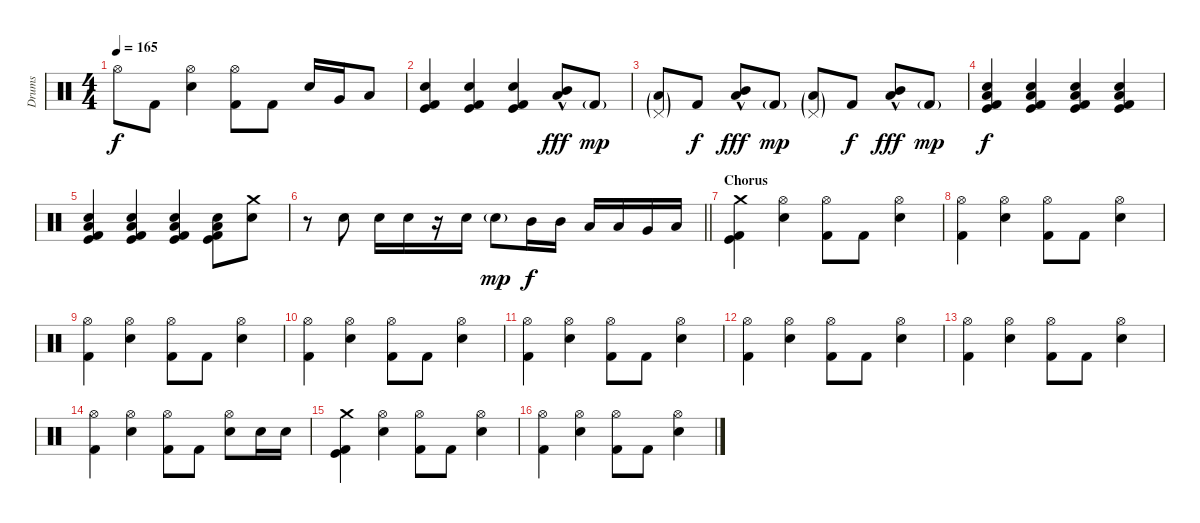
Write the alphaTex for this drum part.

\track ("Drums" "Drums") {instrument percussion}
\staff {score}
\articulation defaults
\ts (4 4)
\tempo 165
\clef neutral
\ks c "Hi-Hat (open)".8{dy f} "Kick (hit) 2".8
("Hi-Hat (open)" "Electric Snare (hit)").4 ("Hi-Hat (open)" "Kick (hit) 2").8 "Kick (hit) 2".8 "Electric Snare (hit)".16 "Very Low Tom (hit)".16 "Low Floor Tom (hit)".8 |
("Kick (hit) 2" "Kick (hit)" "Electric Snare (hit)").4 ("Kick (hit) 2" "Kick (hit)" "Electric Snare (hit)").4 ("Kick (hit) 2" "Kick (hit)" "Electric Snare (hit)").4 ("Mid Tom (hit)"{hac} "Low Floor Tom (hit)").8{dy fff} "Kick (hit) 2"{g}.8{dy mp} |
("Low Floor Tom (hit)"{g} "Pedal Hi-Hat (hit)"{g}).8 "Kick (hit) 2".8{dy f} ("Mid Tom (hit)"{hac} "Low Floor Tom (hit)").8{dy fff} "Kick (hit) 2"{g}.8{dy mp} ("Low Floor Tom (hit)"{g} "Pedal Hi-Hat (hit)"{g}).8 "Kick (hit) 2".8{dy f} ("Mid Tom (hit)"{hac} "Low Floor Tom (hit)").8{dy fff} "Kick (hit) 2"{g}.8{dy mp} |
("Electric Snare (hit)" "Kick (hit) 2" "Kick (hit)" "Low Floor Tom (hit)").4{dy f} ("Electric Snare (hit)" "Kick (hit) 2" "Kick (hit)" "Low Floor Tom (hit)").4 ("Electric Snare (hit)" "Kick (hit) 2" "Kick (hit)" "Low Floor Tom (hit)").4 ("Electric Snare (hit)" "Kick (hit) 2" "Kick (hit)" "Low Floor Tom (hit)").4 |
("Electric Snare (hit)" "Kick (hit) 2" "Kick (hit)" "Low Floor Tom (hit)").4 ("Electric Snare (hit)" "Kick (hit) 2" "Kick (hit)" "Low Floor Tom (hit)").4 ("Electric Snare (hit)" "Kick (hit) 2" "Kick (hit)" "Low Floor Tom (hit)").4 ("Electric Snare (hit)" "Kick (hit) 2" "Kick (hit)" "Low Floor Tom (hit)").8 ("Crash medium (hit)" "Electric Snare (hit)").8 |
\barLineRight lightlight
r.8 "Electric Snare (hit)".8 "Electric Snare (hit)".16 "Electric Snare (hit)".16 r.16 "Electric Snare (hit)".16 "Electric Snare (hit)"{g}.8{dy mp} "Mid Tom (hit)".16{dy f} "Mid Tom (hit)".16 "Low Tom (hit)".16 "Low Tom (hit)".16 "Very Low Tom (hit)".16 "Low Floor Tom (hit)".16 |
\section ("" "Chorus")
("Crash medium (hit)" "Kick (hit) 2" "Kick (hit)").4 ("Hi-Hat (open)" "Electric Snare (hit)").4 ("Hi-Hat (open)" "Kick (hit) 2").8 "Kick (hit) 2".8 ("Hi-Hat (open)" "Electric Snare (hit)").4 |
("Hi-Hat (open)" "Kick (hit) 2").4 ("Hi-Hat (open)" "Electric Snare (hit)").4 ("Hi-Hat (open)" "Kick (hit) 2").8 "Kick (hit) 2".8 ("Hi-Hat (open)" "Electric Snare (hit)").4 |
("Hi-Hat (open)" "Kick (hit) 2").4 ("Hi-Hat (open)" "Electric Snare (hit)").4 ("Hi-Hat (open)" "Kick (hit) 2").8 "Kick (hit) 2".8 ("Hi-Hat (open)" "Electric Snare (hit)").4 |
("Hi-Hat (open)" "Kick (hit) 2").4 ("Hi-Hat (open)" "Electric Snare (hit)").4 ("Hi-Hat (open)" "Kick (hit) 2").8 "Kick (hit) 2".8 ("Hi-Hat (open)" "Electric Snare (hit)").4 |
("Hi-Hat (open)" "Kick (hit) 2").4 ("Hi-Hat (open)" "Electric Snare (hit)").4 ("Hi-Hat (open)" "Kick (hit) 2").8 "Kick (hit) 2".8 ("Hi-Hat (open)" "Electric Snare (hit)").4 |
("Hi-Hat (open)" "Kick (hit) 2").4 ("Hi-Hat (open)" "Electric Snare (hit)").4 ("Hi-Hat (open)" "Kick (hit) 2").8 "Kick (hit) 2".8 ("Hi-Hat (open)" "Electric Snare (hit)").4 |
("Hi-Hat (open)" "Kick (hit) 2").4 ("Hi-Hat (open)" "Electric Snare (hit)").4 ("Hi-Hat (open)" "Kick (hit) 2").8 "Kick (hit) 2".8 ("Hi-Hat (open)" "Electric Snare (hit)").4 |
("Hi-Hat (open)" "Kick (hit) 2").4 ("Hi-Hat (open)" "Electric Snare (hit)").4 ("Hi-Hat (open)" "Kick (hit) 2").8 "Kick (hit) 2".8 ("Hi-Hat (open)" "Electric Snare (hit)").8 "Electric Snare (hit)".16 "Electric Snare (hit)".16 |
("Crash medium (hit)" "Kick (hit) 2" "Kick (hit)").4 ("Hi-Hat (open)" "Electric Snare (hit)").4 ("Hi-Hat (open)" "Kick (hit) 2").8 "Kick (hit) 2".8 ("Hi-Hat (open)" "Electric Snare (hit)").4 |
("Hi-Hat (open)" "Kick (hit) 2").4 ("Hi-Hat (open)" "Electric Snare (hit)").4 ("Hi-Hat (open)" "Kick (hit) 2").8 "Kick (hit) 2".8 ("Hi-Hat (open)" "Electric Snare (hit)").4
